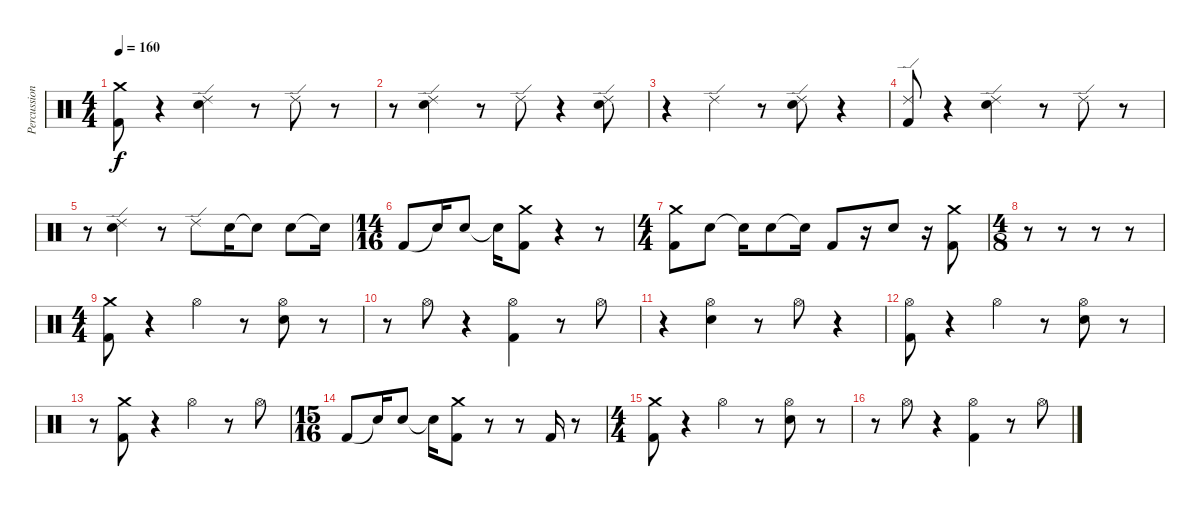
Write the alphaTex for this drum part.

\track ("Percussion" "Percussion") {instrument percussion}
\staff {score}
\articulation defaults
\ts (4 4)
\tempo 160
\clef neutral
\ks c
("Crash medium (hit)" "Kick (hit) 2").8{dy f} r.4 ("Ride (edge) 2" "Electric Snare (hit)").4 r.8 "Ride (edge) 2".8 r.8 |
r.8 ("Ride (edge) 2" "Electric Snare (hit)").4 r.8 "Ride (edge) 2".8 r.4 ("Ride (edge) 2" "Electric Snare (hit)").8 |
r.4 "Ride (edge) 2".4 r.8 ("Ride (edge) 2" "Electric Snare (hit)").8 r.4 |
("Ride (edge) 2" "Kick (hit) 2").8 r.4 ("Ride (edge) 2" "Electric Snare (hit)").4 r.8 "Ride (edge) 2".8 r.8 |
r.8 ("Ride (edge) 2" "Electric Snare (hit)").4 r.8 "Ride (edge) 2".8 "Electric Snare (hit)".16 "Electric Snare (hit)"{t}.8 "Electric Snare (hit)".8 "Snare (hit)"{t}.16 |
\ts (14 16)
"Kick (hit) 2".8 "Snare (hit)"{t}.16 "Electric Snare (hit)".8 "Snare (hit)"{t}.16 ("Crash medium (hit)" "Kick (hit) 2").8 r.4 r.8 |
\ts (4 4)
("Crash medium (hit)" "Kick (hit) 2").8 "Electric Snare (hit)".8 "Electric Snare (hit)"{t}.16 "Electric Snare (hit)".8 "Snare (hit)"{t}.16 "Kick (hit) 2".8 r.16 "Electric Snare (hit)".8 r.16 ("Crash medium (hit)" "Kick (hit) 2").8 |
\ts (4 8)
r.8 r.8 r.8 r.8 |
\ts (4 4)
("Crash medium (hit)" "Kick (hit) 2").8 r.4 "Hi-Hat (open)".4 r.8 ("Hi-Hat (open)" "Electric Snare (hit)").8 r.8 |
r.8 "Hi-Hat (open)".8 r.4 ("Hi-Hat (open)" "Kick (hit) 2").4 r.8 "Hi-Hat (open)".8 |
r.4 ("Hi-Hat (open)" "Electric Snare (hit)").4 r.8 "Hi-Hat (open)".8 r.4 |
("Hi-Hat (open)" "Kick (hit) 2").8 r.4 "Hi-Hat (open)".4 r.8 ("Hi-Hat (open)" "Electric Snare (hit)").8 r.8 |
r.8 ("Crash medium (hit)" "Kick (hit) 2").8 r.4 "Hi-Hat (open)".4 r.8 "Hi-Hat (open)".8 |
\ts (15 16)
"Kick (hit) 2".8 "Snare (hit)"{t}.16 "Electric Snare (hit)".8 "Snare (hit)"{t}.16 ("Crash medium (hit)" "Kick (hit) 2").8 r.8 r.8 "Kick (hit) 2".16 r.8 |
\ts (4 4)
("Crash medium (hit)" "Kick (hit) 2").8 r.4 "Hi-Hat (open)".4 r.8 ("Hi-Hat (open)" "Electric Snare (hit)").8 r.8 |
r.8 "Hi-Hat (open)".8 r.4 ("Hi-Hat (open)" "Kick (hit) 2").4 r.8 "Hi-Hat (open)".8
